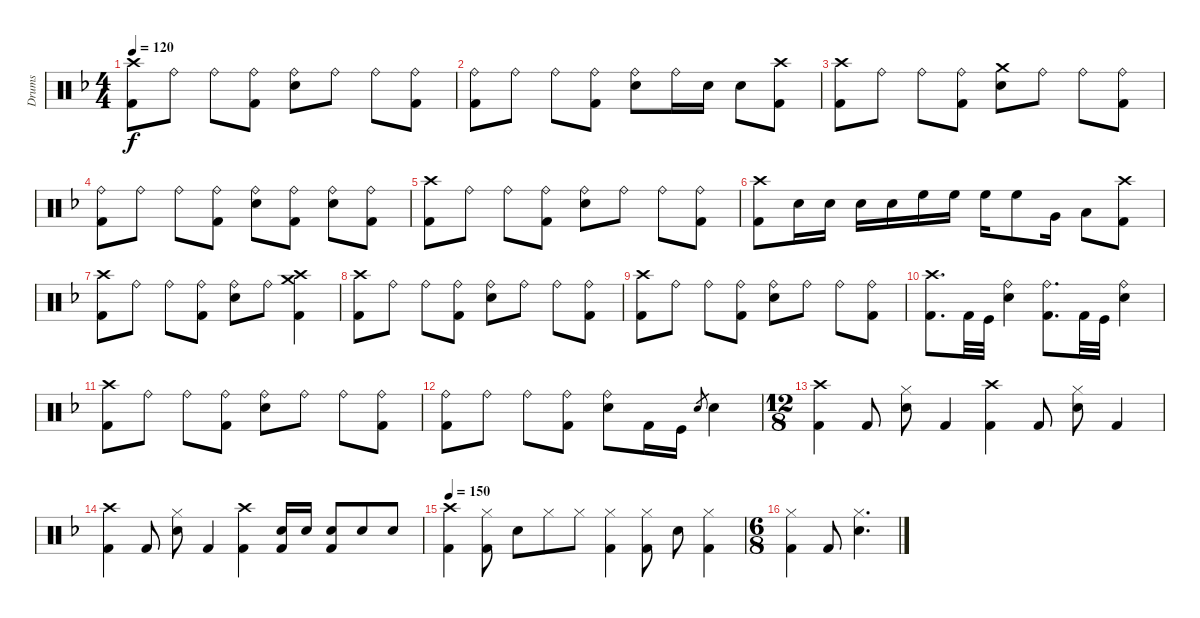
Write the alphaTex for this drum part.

\track ("Drums" "Drums") {instrument percussion}
\staff {score}
\articulation defaults
\ts (4 4)
\tempo 120
\clef neutral
\ks f
("Crash high (hit)" "Kick (hit) 2").8{dy f} "Ride (bell)".8 "Ride (bell)".8 ("Ride (bell)" "Kick (hit) 2").8 ("Ride (bell)" "Electric Snare (hit)").8 "Ride (bell)".8 "Ride (bell)".8 ("Ride (bell)" "Kick (hit) 2").8 |
("Ride (bell)" "Kick (hit) 2").8 "Ride (bell)".8 "Ride (bell)".8 ("Ride (bell)" "Kick (hit) 2").8 ("Ride (bell)" "Electric Snare (hit)").8 "Ride (bell)".16 "Electric Snare (hit)".16 "Electric Snare (hit)".8 ("Crash high (hit)" "Kick (hit) 2").8 |
("Crash high (hit)" "Kick (hit) 2").8 "Ride (bell)".8 "Ride (bell)".8 ("Ride (bell)" "Kick (hit) 2").8 ("Crash medium (hit)" "Electric Snare (hit)").8 "Ride (bell)".8 "Ride (bell)".8 ("Ride (bell)" "Kick (hit) 2").8 |
("Ride (bell)" "Kick (hit) 2").8 "Ride (bell)".8 "Ride (bell)".8 ("Ride (bell)" "Kick (hit) 2").8 ("Ride (bell)" "Electric Snare (hit)").8 ("Ride (bell)" "Kick (hit) 2").8 ("Ride (bell)" "Electric Snare (hit)").8 ("Ride (bell)" "Kick (hit) 2").8 |
("Crash high (hit)" "Kick (hit) 2").8 "Ride (bell)".8 "Ride (bell)".8 ("Ride (bell)" "Kick (hit) 2").8 ("Ride (bell)" "Electric Snare (hit)").8 "Ride (bell)".8 "Ride (bell)".8 ("Ride (bell)" "Kick (hit) 2").8 |
("Crash high (hit)" "Kick (hit) 2").8 "Electric Snare (hit)".16 "Electric Snare (hit)".16 "Electric Snare (hit)".16 "Electric Snare (hit)".16 "High Floor Tom (hit)".16 "High Floor Tom (hit)".16 "High Floor Tom (hit)".16 "High Floor Tom (hit)".8 "Very Low Tom (hit)".16 "Low Floor Tom (hit)".8 ("Crash high (hit)" "Kick (hit) 2").8 |
("Crash high (hit)" "Kick (hit) 2").8 "Ride (bell)".8 "Ride (bell)".8 ("Ride (bell)" "Kick (hit) 2").8 ("Ride (bell)" "Electric Snare (hit)").8 "Ride (bell)".8 ("Crash high (hit)" "Crash medium (hit)" "Kick (hit) 2").4 |
("Crash high (hit)" "Kick (hit) 2").8 "Ride (bell)".8 "Ride (bell)".8 ("Ride (bell)" "Kick (hit) 2").8 ("Ride (bell)" "Electric Snare (hit)").8 "Ride (bell)".8 "Ride (bell)".8 ("Ride (bell)" "Kick (hit) 2").8 |
("Crash high (hit)" "Kick (hit) 2").8 "Ride (bell)".8 "Ride (bell)".8 ("Ride (bell)" "Kick (hit) 2").8 ("Ride (bell)" "Electric Snare (hit)").8 "Ride (bell)".8 "Ride (bell)".8 ("Ride (bell)" "Kick (hit) 2").8 |
("Crash high (hit)" "Kick (hit) 2").8{d} "Kick (hit) 2".32 "Kick (hit)".32 ("Ride (bell)" "Electric Snare (hit)").4 ("Ride (bell)" "Kick (hit) 2").8{d} "Kick (hit) 2".32 "Kick (hit)".32 ("Ride (bell)" "Electric Snare (hit)").4 |
("Crash high (hit)" "Kick (hit) 2").8 "Ride (bell)".8 "Ride (bell)".8 ("Ride (bell)" "Kick (hit) 2").8 ("Ride (bell)" "Electric Snare (hit)").8 "Ride (bell)".8 "Ride (bell)".8 ("Ride (bell)" "Kick (hit) 2").8 |
("Ride (bell)" "Kick (hit) 2").8 "Ride (bell)".8 "Ride (bell)".8 ("Ride (bell)" "Kick (hit) 2").8 ("Ride (bell)" "Electric Snare (hit)").8 "Kick (hit) 2".16 "Kick (hit)".16 "Electric Snare (hit)".8{gr} "Electric Snare (hit)".4 |
\ts (12 8)
("Crash high (hit)" "Kick (hit) 2").4 "Kick (hit) 2".8 ("Hi-Hat (closed)" "Electric Snare (hit)").8 "Kick (hit) 2".4 ("Crash high (hit)" "Kick (hit) 2").4 "Kick (hit) 2".8 ("Hi-Hat (closed)" "Electric Snare (hit)").8 "Kick (hit) 2".4 |
("Crash high (hit)" "Kick (hit) 2").4 "Kick (hit) 2".8 ("Hi-Hat (closed)" "Electric Snare (hit)").8 "Kick (hit) 2".4 ("Crash high (hit)" "Kick (hit) 2").4 ("Electric Snare (hit)" "Kick (hit) 2").16 "Electric Snare (hit)".16 ("Electric Snare (hit)" "Kick (hit) 2").8 "Electric Snare (hit)".8 "Electric Snare (hit)".8 |
\tempo 150
("Crash high (hit)" "Kick (hit) 2").4 ("Hi-Hat (closed)" "Kick (hit) 2").8 "Electric Snare (hit)".8 "Hi-Hat (closed)".8 "Hi-Hat (closed)".8 ("Hi-Hat (closed)" "Kick (hit) 2").4 ("Hi-Hat (closed)" "Kick (hit) 2").8 "Electric Snare (hit)".8 ("Hi-Hat (closed)" "Kick (hit) 2").4 |
\ts (6 8)
("Hi-Hat (closed)" "Kick (hit) 2").4 "Kick (hit) 2".8 ("Hi-Hat (closed)" "Electric Snare (hit)").4{d}
